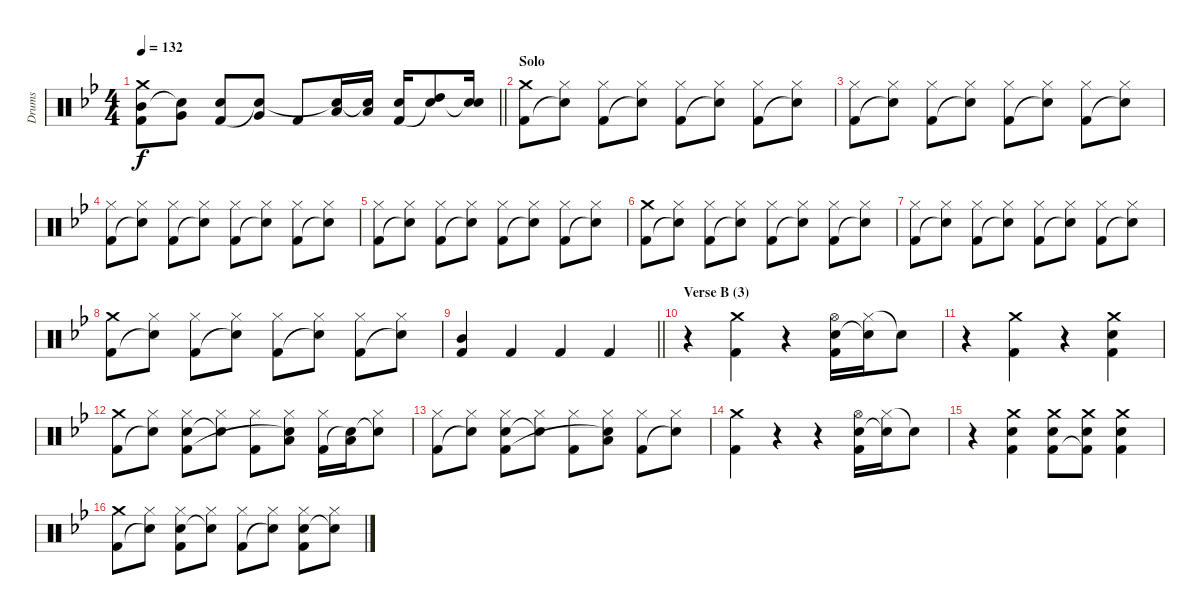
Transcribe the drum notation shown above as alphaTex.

\track ("Drums" "Drums") {instrument percussion}
\staff {score}
\articulation defaults
\ts (4 4)
\tempo 132
\clef neutral
\barLineRight lightlight
\ks bb
("Crash medium (hit)" "Mid Tom (hit)" "Kick (hit) 2").8{dy f} ("Very Low Tom (hit)" "Snare (hit)"{t}).8 ("Electric Snare (hit)" "Kick (hit) 2").8 ("Very Low Tom (hit)" "Snare (hit)"{t}).8 "Kick (hit) 2".8 ("Low Floor Tom (hit)" "Snare (hit)"{t}).16 ("Low Floor Tom (hit)" "Snare (hit)"{t}).16 ("Electric Snare (hit)" "Kick (hit) 2").16 ("High Tom (hit)" "Snare (hit)"{t}).8 ("Electric Snare (hit)" "Snare (hit)"{t}).16 |
\section ("" "Solo")
("Crash medium (hit)" "Kick (hit) 2").8 ("Hi-Hat (closed)" "Snare (hit)"{t}).8 ("Hi-Hat (closed)" "Kick (hit) 2").8 ("Hi-Hat (closed)" "Snare (hit)"{t}).8 ("Hi-Hat (closed)" "Kick (hit) 2").8 ("Hi-Hat (closed)" "Snare (hit)"{t}).8 ("Hi-Hat (closed)" "Kick (hit) 2").8 ("Hi-Hat (closed)" "Snare (hit)"{t}).8 |
("Hi-Hat (closed)" "Kick (hit) 2").8 ("Hi-Hat (closed)" "Snare (hit)"{t}).8 ("Hi-Hat (closed)" "Kick (hit) 2").8 ("Hi-Hat (closed)" "Snare (hit)"{t}).8 ("Hi-Hat (closed)" "Kick (hit) 2").8 ("Hi-Hat (closed)" "Snare (hit)"{t}).8 ("Hi-Hat (closed)" "Kick (hit) 2").8 ("Hi-Hat (closed)" "Snare (hit)"{t}).8 |
("Hi-Hat (closed)" "Kick (hit) 2").8 ("Hi-Hat (closed)" "Snare (hit)"{t}).8 ("Hi-Hat (closed)" "Kick (hit) 2").8 ("Hi-Hat (closed)" "Snare (hit)"{t}).8 ("Hi-Hat (closed)" "Kick (hit) 2").8 ("Hi-Hat (closed)" "Snare (hit)"{t}).8 ("Hi-Hat (closed)" "Kick (hit) 2").8 ("Hi-Hat (closed)" "Snare (hit)"{t}).8 |
("Hi-Hat (closed)" "Kick (hit) 2").8 ("Hi-Hat (closed)" "Snare (hit)"{t}).8 ("Hi-Hat (closed)" "Kick (hit) 2").8 ("Hi-Hat (closed)" "Snare (hit)"{t}).8 ("Hi-Hat (closed)" "Kick (hit) 2").8 ("Hi-Hat (closed)" "Snare (hit)"{t}).8 ("Hi-Hat (closed)" "Kick (hit) 2").8 ("Hi-Hat (closed)" "Snare (hit)"{t}).8 |
("Crash medium (hit)" "Kick (hit) 2").8 ("Hi-Hat (closed)" "Snare (hit)"{t}).8 ("Hi-Hat (closed)" "Kick (hit) 2").8 ("Hi-Hat (closed)" "Snare (hit)"{t}).8 ("Hi-Hat (closed)" "Kick (hit) 2").8 ("Hi-Hat (closed)" "Snare (hit)"{t}).8 ("Hi-Hat (closed)" "Kick (hit) 2").8 ("Hi-Hat (closed)" "Snare (hit)"{t}).8 |
("Hi-Hat (closed)" "Kick (hit) 2").8 ("Hi-Hat (closed)" "Snare (hit)"{t}).8 ("Hi-Hat (closed)" "Kick (hit) 2").8 ("Hi-Hat (closed)" "Snare (hit)"{t}).8 ("Hi-Hat (closed)" "Kick (hit) 2").8 ("Hi-Hat (closed)" "Snare (hit)"{t}).8 ("Hi-Hat (closed)" "Kick (hit) 2").8 ("Hi-Hat (closed)" "Snare (hit)"{t}).8 |
("Crash medium (hit)" "Kick (hit) 2").8 ("Hi-Hat (closed)" "Snare (hit)"{t}).8 ("Hi-Hat (closed)" "Kick (hit) 2").8 ("Hi-Hat (closed)" "Snare (hit)"{t}).8 ("Hi-Hat (closed)" "Kick (hit) 2").8 ("Hi-Hat (closed)" "Snare (hit)"{t}).8 ("Hi-Hat (closed)" "Kick (hit) 2").8 ("Hi-Hat (closed)" "Snare (hit)"{t}).8 |
\barLineRight lightlight
("Mid Tom (hit)" "Kick (hit) 2").4 "Kick (hit) 2".4 "Kick (hit) 2".4 "Kick (hit) 2".4 |
\section ("" "Verse B (3)")
r.4 ("Crash medium (hit)" "Kick (hit) 2").4 r.4 ("Hi-Hat (open)" "Electric Snare (hit)" "Kick (hit) 2").16 ("Hi-Hat (closed)" "Snare (hit)"{t}).16 "Snare (hit)"{t}.8 |
r.4 ("Crash medium (hit)" "Kick (hit) 2").4 r.4 ("Crash medium (hit)" "Electric Snare (hit)" "Kick (hit) 2").4 |
("Crash medium (hit)" "Kick (hit) 2").8 ("Hi-Hat (closed)" "Snare (hit)"{t}).8 ("Hi-Hat (closed)" "Electric Snare (hit)" "Kick (hit) 2").8 ("Hi-Hat (closed)" "Snare (hit)"{t}).8 ("Hi-Hat (closed)" "Kick (hit) 2").8 ("Hi-Hat (closed)" "Low Floor Tom (hit)" "Snare (hit)"{t}).8 ("Hi-Hat (closed)" "Kick (hit) 2").16 ("Low Floor Tom (hit)" "Snare (hit)"{t}).16 ("Hi-Hat (closed)" "Snare (hit)"{t}).8 |
("Hi-Hat (closed)" "Kick (hit) 2").8 ("Hi-Hat (closed)" "Snare (hit)"{t}).8 ("Hi-Hat (closed)" "Electric Snare (hit)" "Kick (hit) 2").8 ("Hi-Hat (closed)" "Snare (hit)"{t}).8 ("Hi-Hat (closed)" "Kick (hit) 2").8 ("Hi-Hat (closed)" "Low Floor Tom (hit)" "Snare (hit)"{t}).8 ("Hi-Hat (closed)" "Kick (hit) 2").8 ("Hi-Hat (closed)" "Snare (hit)"{t}).8 |
("Crash medium (hit)" "Kick (hit) 2").4 r.4 r.4 ("Hi-Hat (open)" "Electric Snare (hit)" "Kick (hit) 2").16 ("Hi-Hat (closed)" "Snare (hit)"{t}).16 "Snare (hit)"{t}.8 |
r.4 ("Crash medium (hit)" "Electric Snare (hit)" "Kick (hit) 2").4 ("Crash medium (hit)" "Electric Snare (hit)" "Kick (hit) 2").8 ("Crash medium (hit)" "Electric Snare (hit)" "Kick (hit) 2"{t}).8 ("Crash medium (hit)" "Electric Snare (hit)" "Kick (hit) 2").4 |
("Crash medium (hit)" "Kick (hit) 2").8 ("Hi-Hat (closed)" "Snare (hit)"{t}).8 ("Hi-Hat (closed)" "Electric Snare (hit)" "Kick (hit) 2").8 ("Hi-Hat (closed)" "Snare (hit)"{t}).8 ("Hi-Hat (closed)" "Kick (hit) 2").8 ("Hi-Hat (closed)" "Snare (hit)"{t}).8 ("Hi-Hat (closed)" "Electric Snare (hit)" "Kick (hit) 2").8 ("Hi-Hat (closed)" "Snare (hit)"{t}).8
